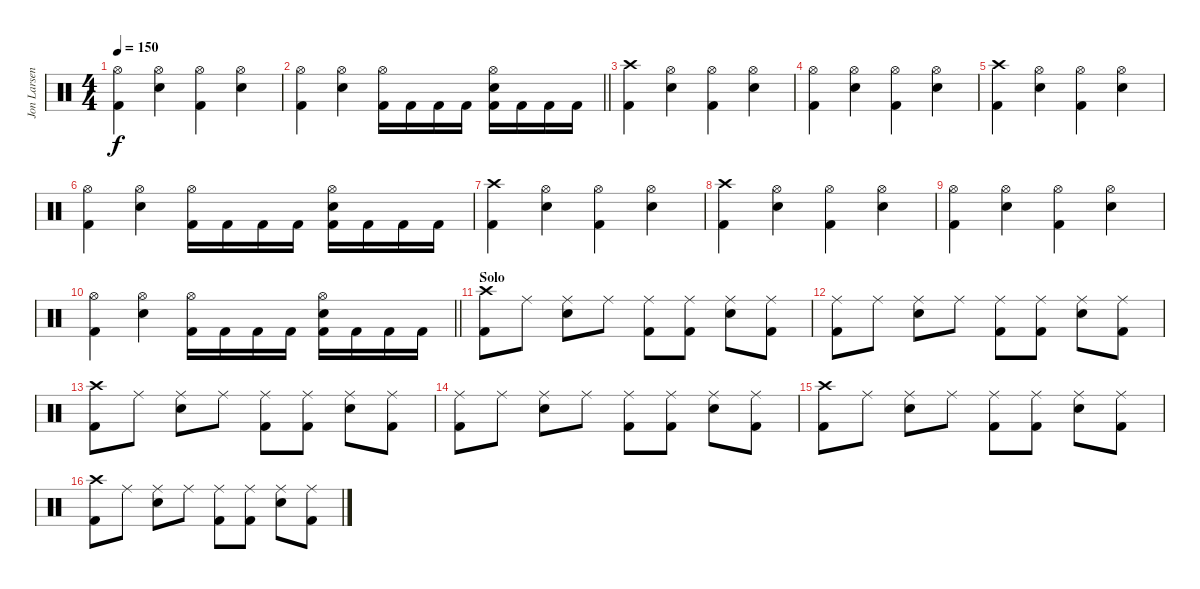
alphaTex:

\track ("Jon Larsen" "Jon Larsen") {instrument percussion bank 10}
\staff {score}
\articulation defaults
\ts (4 4)
\tempo 150
\clef neutral
\ks c
("Hi-Hat (open)" "Kick (hit) 2").4{dy f} ("Hi-Hat (open)" "Electric Snare (hit)").4 ("Hi-Hat (open)" "Kick (hit) 2").4 ("Hi-Hat (open)" "Electric Snare (hit)").4 |
\barLineRight lightlight
("Hi-Hat (open)" "Kick (hit) 2").4 ("Hi-Hat (open)" "Electric Snare (hit)").4 ("Hi-Hat (open)" "Kick (hit) 2").16 "Kick (hit) 2".16 "Kick (hit) 2".16 "Kick (hit) 2".16 ("Hi-Hat (open)" "Electric Snare (hit)" "Kick (hit) 2").16 "Kick (hit) 2".16 "Kick (hit) 2".16 "Kick (hit) 2".16 |
\section ("" "")
("Crash high (hit)" "Kick (hit) 2").4 ("Hi-Hat (open)" "Electric Snare (hit)").4 ("Hi-Hat (open)" "Kick (hit) 2").4 ("Hi-Hat (open)" "Electric Snare (hit)").4 |
("Hi-Hat (open)" "Kick (hit) 2").4 ("Hi-Hat (open)" "Electric Snare (hit)").4 ("Hi-Hat (open)" "Kick (hit) 2").4 ("Hi-Hat (open)" "Electric Snare (hit)").4 |
("Crash high (hit)" "Kick (hit) 2").4 ("Hi-Hat (open)" "Electric Snare (hit)").4 ("Hi-Hat (open)" "Kick (hit) 2").4 ("Hi-Hat (open)" "Electric Snare (hit)").4 |
("Hi-Hat (open)" "Kick (hit) 2").4 ("Hi-Hat (open)" "Electric Snare (hit)").4 ("Hi-Hat (open)" "Kick (hit) 2").16 "Kick (hit) 2".16 "Kick (hit) 2".16 "Kick (hit) 2".16 ("Hi-Hat (open)" "Electric Snare (hit)" "Kick (hit) 2").16 "Kick (hit) 2".16 "Kick (hit) 2".16 "Kick (hit) 2".16 |
("Crash high (hit)" "Kick (hit) 2").4 ("Hi-Hat (open)" "Electric Snare (hit)").4 ("Hi-Hat (open)" "Kick (hit) 2").4 ("Hi-Hat (open)" "Electric Snare (hit)").4 |
("Crash high (hit)" "Kick (hit) 2").4 ("Hi-Hat (open)" "Electric Snare (hit)").4 ("Hi-Hat (open)" "Kick (hit) 2").4 ("Hi-Hat (open)" "Electric Snare (hit)").4 |
("Hi-Hat (open)" "Kick (hit) 2").4 ("Hi-Hat (open)" "Electric Snare (hit)").4 ("Hi-Hat (open)" "Kick (hit) 2").4 ("Hi-Hat (open)" "Electric Snare (hit)").4 |
\barLineRight lightlight
("Hi-Hat (open)" "Kick (hit) 2").4 ("Hi-Hat (open)" "Electric Snare (hit)").4 ("Hi-Hat (open)" "Kick (hit) 2").16 "Kick (hit) 2".16 "Kick (hit) 2".16 "Kick (hit) 2".16 ("Hi-Hat (open)" "Electric Snare (hit)" "Kick (hit) 2").16 "Kick (hit) 2".16 "Kick (hit) 2".16 "Kick (hit) 2".16 |
\section ("" "Solo")
("Crash high (hit)" "Kick (hit) 2").8 "Ride (middle)".8 ("Ride (middle)" "Electric Snare (hit)").8 "Ride (middle)".8 ("Ride (middle)" "Kick (hit) 2").8 ("Ride (middle)" "Kick (hit) 2").8 ("Ride (middle)" "Electric Snare (hit)").8 ("Ride (middle)" "Kick (hit) 2").8 |
("Ride (middle)" "Kick (hit) 2").8 "Ride (middle)".8 ("Ride (middle)" "Electric Snare (hit)").8 "Ride (middle)".8 ("Ride (middle)" "Kick (hit) 2").8 ("Ride (middle)" "Kick (hit) 2").8 ("Ride (middle)" "Electric Snare (hit)").8 ("Ride (middle)" "Kick (hit) 2").8 |
("Crash high (hit)" "Kick (hit) 2").8 "Ride (middle)".8 ("Ride (middle)" "Electric Snare (hit)").8 "Ride (middle)".8 ("Ride (middle)" "Kick (hit) 2").8 ("Ride (middle)" "Kick (hit) 2").8 ("Ride (middle)" "Electric Snare (hit)").8 ("Ride (middle)" "Kick (hit) 2").8 |
("Ride (middle)" "Kick (hit) 2").8 "Ride (middle)".8 ("Ride (middle)" "Electric Snare (hit)").8 "Ride (middle)".8 ("Ride (middle)" "Kick (hit) 2").8 ("Ride (middle)" "Kick (hit) 2").8 ("Ride (middle)" "Electric Snare (hit)").8 ("Ride (middle)" "Kick (hit) 2").8 |
("Crash high (hit)" "Kick (hit) 2").8 "Ride (middle)".8 ("Ride (middle)" "Electric Snare (hit)").8 "Ride (middle)".8 ("Ride (middle)" "Kick (hit) 2").8 ("Ride (middle)" "Kick (hit) 2").8 ("Ride (middle)" "Electric Snare (hit)").8 ("Ride (middle)" "Kick (hit) 2").8 |
("Crash high (hit)" "Kick (hit) 2").8 "Ride (middle)".8 ("Ride (middle)" "Electric Snare (hit)").8 "Ride (middle)".8 ("Ride (middle)" "Kick (hit) 2").8 ("Ride (middle)" "Kick (hit) 2").8 ("Ride (middle)" "Electric Snare (hit)").8 ("Ride (middle)" "Kick (hit) 2").8
